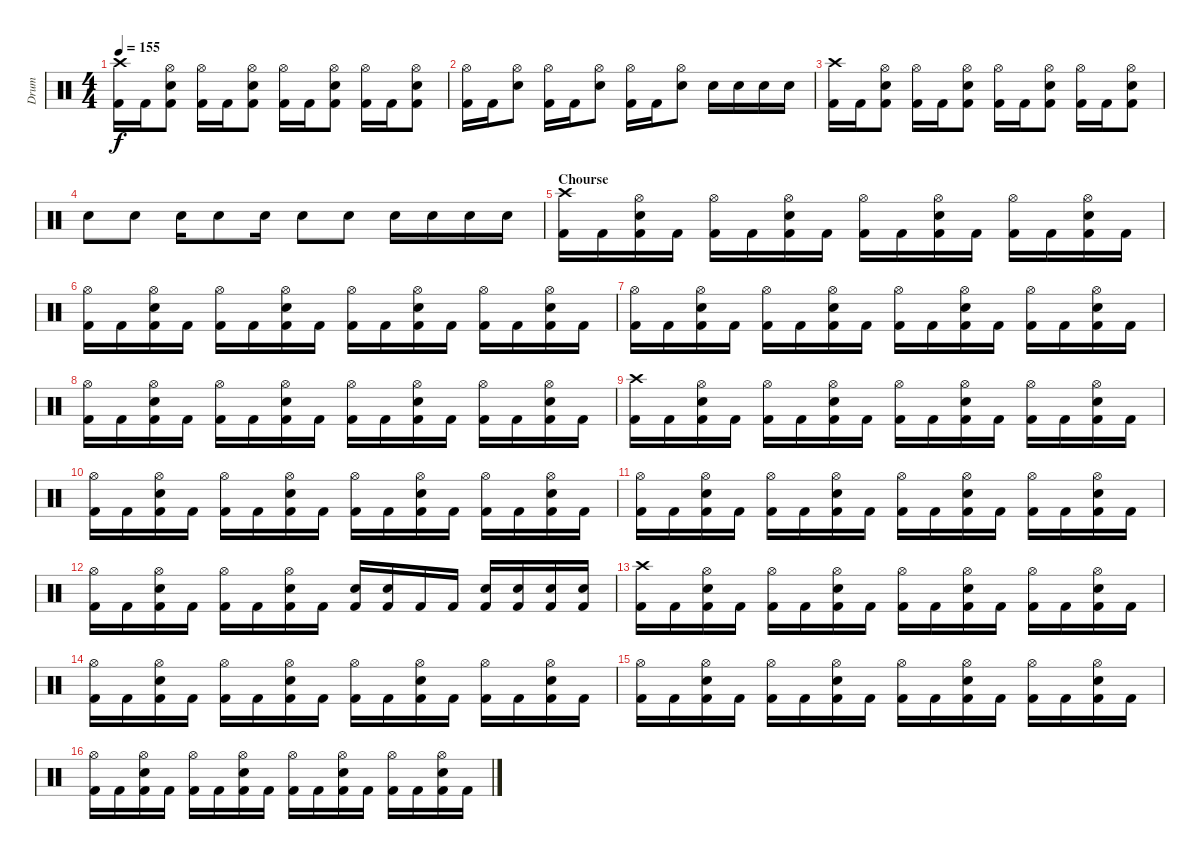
\track ("Drum" "Drum") {instrument percussion}
\staff {score}
\articulation defaults
\ts (4 4)
\tempo 155
\clef neutral
\ks c
("Crash high (hit)" "Kick (hit) 2").16{dy f} "Kick (hit) 2".16 ("Hi-Hat (open)" "Electric Snare (hit)" "Kick (hit) 2").8 ("Hi-Hat (open)" "Kick (hit) 2").16 "Kick (hit) 2".16 ("Hi-Hat (open)" "Electric Snare (hit)" "Kick (hit) 2").8 ("Hi-Hat (open)" "Kick (hit) 2").16 "Kick (hit) 2".16 ("Hi-Hat (open)" "Electric Snare (hit)" "Kick (hit) 2").8 ("Hi-Hat (open)" "Kick (hit) 2").16 "Kick (hit) 2".16 ("Hi-Hat (open)" "Electric Snare (hit)" "Kick (hit) 2").8 |
("Hi-Hat (open)" "Kick (hit) 2").16 "Kick (hit) 2".16 ("Hi-Hat (open)" "Electric Snare (hit)").8 ("Hi-Hat (open)" "Kick (hit) 2").16 "Kick (hit) 2".16 ("Hi-Hat (open)" "Electric Snare (hit)").8 ("Hi-Hat (open)" "Kick (hit) 2").16 "Kick (hit) 2".16 ("Hi-Hat (open)" "Electric Snare (hit)").8 "Electric Snare (hit)".16 "Electric Snare (hit)".16 "Electric Snare (hit)".16 "Electric Snare (hit)".16 |
("Crash high (hit)" "Kick (hit) 2").16 "Kick (hit) 2".16 ("Hi-Hat (open)" "Electric Snare (hit)" "Kick (hit) 2").8 ("Hi-Hat (open)" "Kick (hit) 2").16 "Kick (hit) 2".16 ("Hi-Hat (open)" "Electric Snare (hit)" "Kick (hit) 2").8 ("Hi-Hat (open)" "Kick (hit) 2").16 "Kick (hit) 2".16 ("Hi-Hat (open)" "Electric Snare (hit)" "Kick (hit) 2").8 ("Hi-Hat (open)" "Kick (hit) 2").16 "Kick (hit) 2".16 ("Hi-Hat (open)" "Electric Snare (hit)" "Kick (hit) 2").8 |
"Electric Snare (hit)".8 "Electric Snare (hit)".8 "Electric Snare (hit)".16 "Electric Snare (hit)".8 "Electric Snare (hit)".16 "Electric Snare (hit)".8 "Electric Snare (hit)".8 "Electric Snare (hit)".16 "Electric Snare (hit)".16 "Electric Snare (hit)".16 "Electric Snare (hit)".16 |
\section ("" "Chourse")
("Crash high (hit)" "Kick (hit) 2").16 "Kick (hit) 2".16 ("Hi-Hat (open)" "Electric Snare (hit)" "Kick (hit) 2").16 "Kick (hit) 2".16 ("Hi-Hat (open)" "Kick (hit) 2").16 "Kick (hit) 2".16 ("Hi-Hat (open)" "Electric Snare (hit)" "Kick (hit) 2").16 "Kick (hit) 2".16 ("Hi-Hat (open)" "Kick (hit) 2").16 "Kick (hit) 2".16 ("Hi-Hat (open)" "Electric Snare (hit)" "Kick (hit) 2").16 "Kick (hit) 2".16 ("Hi-Hat (open)" "Kick (hit) 2").16 "Kick (hit) 2".16 ("Hi-Hat (open)" "Electric Snare (hit)" "Kick (hit) 2").16 "Kick (hit) 2".16 |
("Hi-Hat (open)" "Kick (hit) 2").16 "Kick (hit) 2".16 ("Hi-Hat (open)" "Electric Snare (hit)" "Kick (hit) 2").16 "Kick (hit) 2".16 ("Hi-Hat (open)" "Kick (hit) 2").16 "Kick (hit) 2".16 ("Hi-Hat (open)" "Electric Snare (hit)" "Kick (hit) 2").16 "Kick (hit) 2".16 ("Hi-Hat (open)" "Kick (hit) 2").16 "Kick (hit) 2".16 ("Hi-Hat (open)" "Electric Snare (hit)" "Kick (hit) 2").16 "Kick (hit) 2".16 ("Hi-Hat (open)" "Kick (hit) 2").16 "Kick (hit) 2".16 ("Hi-Hat (open)" "Electric Snare (hit)" "Kick (hit) 2").16 "Kick (hit) 2".16 |
("Hi-Hat (open)" "Kick (hit) 2").16 "Kick (hit) 2".16 ("Hi-Hat (open)" "Electric Snare (hit)" "Kick (hit) 2").16 "Kick (hit) 2".16 ("Hi-Hat (open)" "Kick (hit) 2").16 "Kick (hit) 2".16 ("Hi-Hat (open)" "Electric Snare (hit)" "Kick (hit) 2").16 "Kick (hit) 2".16 ("Hi-Hat (open)" "Kick (hit) 2").16 "Kick (hit) 2".16 ("Hi-Hat (open)" "Electric Snare (hit)" "Kick (hit) 2").16 "Kick (hit) 2".16 ("Hi-Hat (open)" "Kick (hit) 2").16 "Kick (hit) 2".16 ("Hi-Hat (open)" "Electric Snare (hit)" "Kick (hit) 2").16 "Kick (hit) 2".16 |
("Hi-Hat (open)" "Kick (hit) 2").16 "Kick (hit) 2".16 ("Hi-Hat (open)" "Electric Snare (hit)" "Kick (hit) 2").16 "Kick (hit) 2".16 ("Hi-Hat (open)" "Kick (hit) 2").16 "Kick (hit) 2".16 ("Hi-Hat (open)" "Electric Snare (hit)" "Kick (hit) 2").16 "Kick (hit) 2".16 ("Hi-Hat (open)" "Kick (hit) 2").16 "Kick (hit) 2".16 ("Hi-Hat (open)" "Electric Snare (hit)" "Kick (hit) 2").16 "Kick (hit) 2".16 ("Hi-Hat (open)" "Kick (hit) 2").16 "Kick (hit) 2".16 ("Hi-Hat (open)" "Electric Snare (hit)" "Kick (hit) 2").16 "Kick (hit) 2".16 |
("Crash high (hit)" "Kick (hit) 2").16 "Kick (hit) 2".16 ("Hi-Hat (open)" "Electric Snare (hit)" "Kick (hit) 2").16 "Kick (hit) 2".16 ("Hi-Hat (open)" "Kick (hit) 2").16 "Kick (hit) 2".16 ("Hi-Hat (open)" "Electric Snare (hit)" "Kick (hit) 2").16 "Kick (hit) 2".16 ("Hi-Hat (open)" "Kick (hit) 2").16 "Kick (hit) 2".16 ("Hi-Hat (open)" "Electric Snare (hit)" "Kick (hit) 2").16 "Kick (hit) 2".16 ("Hi-Hat (open)" "Kick (hit) 2").16 "Kick (hit) 2".16 ("Hi-Hat (open)" "Electric Snare (hit)" "Kick (hit) 2").16 "Kick (hit) 2".16 |
("Hi-Hat (open)" "Kick (hit) 2").16 "Kick (hit) 2".16 ("Hi-Hat (open)" "Electric Snare (hit)" "Kick (hit) 2").16 "Kick (hit) 2".16 ("Hi-Hat (open)" "Kick (hit) 2").16 "Kick (hit) 2".16 ("Hi-Hat (open)" "Electric Snare (hit)" "Kick (hit) 2").16 "Kick (hit) 2".16 ("Hi-Hat (open)" "Kick (hit) 2").16 "Kick (hit) 2".16 ("Hi-Hat (open)" "Electric Snare (hit)" "Kick (hit) 2").16 "Kick (hit) 2".16 ("Hi-Hat (open)" "Kick (hit) 2").16 "Kick (hit) 2".16 ("Hi-Hat (open)" "Electric Snare (hit)" "Kick (hit) 2").16 "Kick (hit) 2".16 |
("Hi-Hat (open)" "Kick (hit) 2").16 "Kick (hit) 2".16 ("Hi-Hat (open)" "Electric Snare (hit)" "Kick (hit) 2").16 "Kick (hit) 2".16 ("Hi-Hat (open)" "Kick (hit) 2").16 "Kick (hit) 2".16 ("Hi-Hat (open)" "Electric Snare (hit)" "Kick (hit) 2").16 "Kick (hit) 2".16 ("Hi-Hat (open)" "Kick (hit) 2").16 "Kick (hit) 2".16 ("Hi-Hat (open)" "Electric Snare (hit)" "Kick (hit) 2").16 "Kick (hit) 2".16 ("Hi-Hat (open)" "Kick (hit) 2").16 "Kick (hit) 2".16 ("Hi-Hat (open)" "Electric Snare (hit)" "Kick (hit) 2").16 "Kick (hit) 2".16 |
("Hi-Hat (open)" "Kick (hit) 2").16 "Kick (hit) 2".16 ("Hi-Hat (open)" "Electric Snare (hit)" "Kick (hit) 2").16 "Kick (hit) 2".16 ("Hi-Hat (open)" "Kick (hit) 2").16 "Kick (hit) 2".16 ("Hi-Hat (open)" "Electric Snare (hit)" "Kick (hit) 2").16 "Kick (hit) 2".16 ("Electric Snare (hit)" "Kick (hit) 2").16 ("Electric Snare (hit)" "Kick (hit) 2").16 "Kick (hit) 2".16 "Kick (hit) 2".16 ("Electric Snare (hit)" "Kick (hit) 2").16 ("Electric Snare (hit)" "Kick (hit) 2").16 ("Electric Snare (hit)" "Kick (hit) 2").16 ("Electric Snare (hit)" "Kick (hit) 2").16 |
("Crash high (hit)" "Kick (hit) 2").16 "Kick (hit) 2".16 ("Hi-Hat (open)" "Electric Snare (hit)" "Kick (hit) 2").16 "Kick (hit) 2".16 ("Hi-Hat (open)" "Kick (hit) 2").16 "Kick (hit) 2".16 ("Hi-Hat (open)" "Electric Snare (hit)" "Kick (hit) 2").16 "Kick (hit) 2".16 ("Hi-Hat (open)" "Kick (hit) 2").16 "Kick (hit) 2".16 ("Hi-Hat (open)" "Electric Snare (hit)" "Kick (hit) 2").16 "Kick (hit) 2".16 ("Hi-Hat (open)" "Kick (hit) 2").16 "Kick (hit) 2".16 ("Hi-Hat (open)" "Electric Snare (hit)" "Kick (hit) 2").16 "Kick (hit) 2".16 |
("Hi-Hat (open)" "Kick (hit) 2").16 "Kick (hit) 2".16 ("Hi-Hat (open)" "Electric Snare (hit)" "Kick (hit) 2").16 "Kick (hit) 2".16 ("Hi-Hat (open)" "Kick (hit) 2").16 "Kick (hit) 2".16 ("Hi-Hat (open)" "Electric Snare (hit)" "Kick (hit) 2").16 "Kick (hit) 2".16 ("Hi-Hat (open)" "Kick (hit) 2").16 "Kick (hit) 2".16 ("Hi-Hat (open)" "Electric Snare (hit)" "Kick (hit) 2").16 "Kick (hit) 2".16 ("Hi-Hat (open)" "Kick (hit) 2").16 "Kick (hit) 2".16 ("Hi-Hat (open)" "Electric Snare (hit)" "Kick (hit) 2").16 "Kick (hit) 2".16 |
("Hi-Hat (open)" "Kick (hit) 2").16 "Kick (hit) 2".16 ("Hi-Hat (open)" "Electric Snare (hit)" "Kick (hit) 2").16 "Kick (hit) 2".16 ("Hi-Hat (open)" "Kick (hit) 2").16 "Kick (hit) 2".16 ("Hi-Hat (open)" "Electric Snare (hit)" "Kick (hit) 2").16 "Kick (hit) 2".16 ("Hi-Hat (open)" "Kick (hit) 2").16 "Kick (hit) 2".16 ("Hi-Hat (open)" "Electric Snare (hit)" "Kick (hit) 2").16 "Kick (hit) 2".16 ("Hi-Hat (open)" "Kick (hit) 2").16 "Kick (hit) 2".16 ("Hi-Hat (open)" "Electric Snare (hit)" "Kick (hit) 2").16 "Kick (hit) 2".16 |
("Hi-Hat (open)" "Kick (hit) 2").16 "Kick (hit) 2".16 ("Hi-Hat (open)" "Electric Snare (hit)" "Kick (hit) 2").16 "Kick (hit) 2".16 ("Hi-Hat (open)" "Kick (hit) 2").16 "Kick (hit) 2".16 ("Hi-Hat (open)" "Electric Snare (hit)" "Kick (hit) 2").16 "Kick (hit) 2".16 ("Hi-Hat (open)" "Kick (hit) 2").16 "Kick (hit) 2".16 ("Hi-Hat (open)" "Electric Snare (hit)" "Kick (hit) 2").16 "Kick (hit) 2".16 ("Hi-Hat (open)" "Kick (hit) 2").16 "Kick (hit) 2".16 ("Hi-Hat (open)" "Electric Snare (hit)" "Kick (hit) 2").16 "Kick (hit) 2".16
